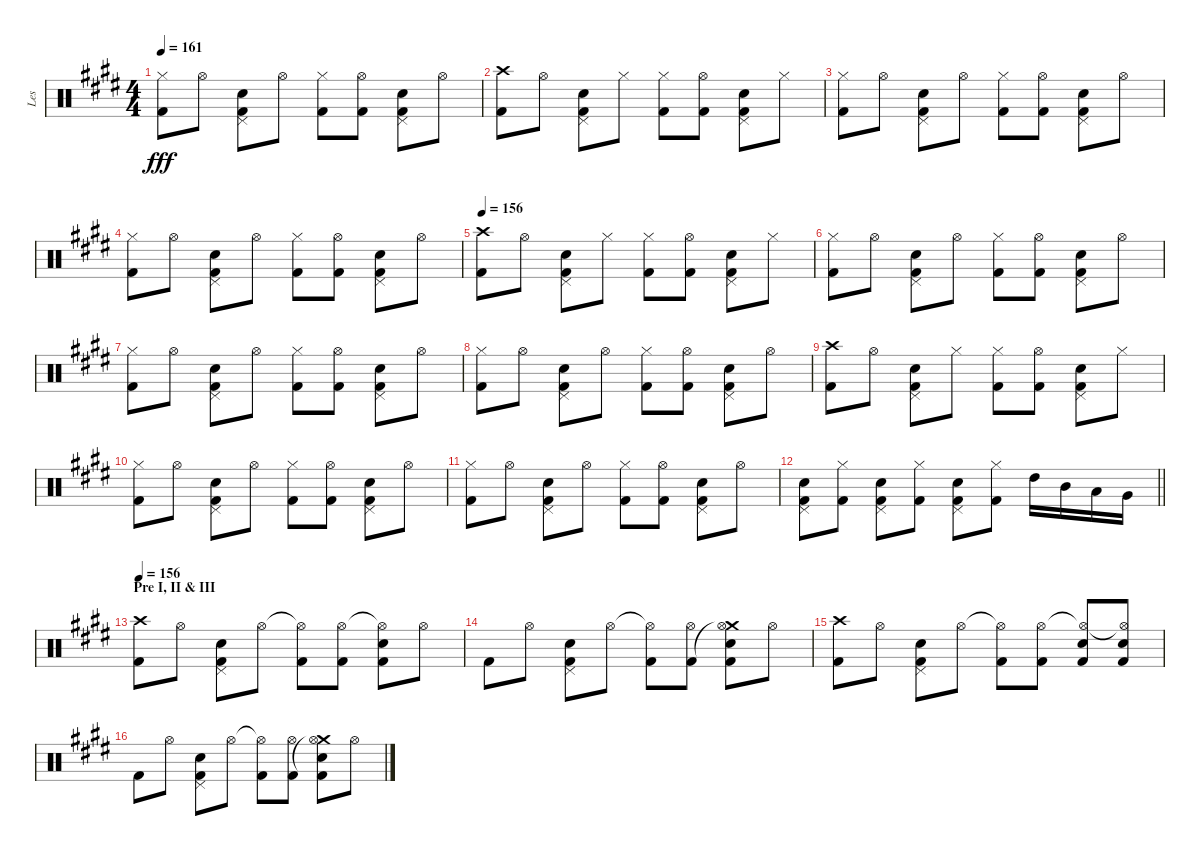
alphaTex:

\track ("Les" "Les") {instrument percussion}
\staff {score}
\articulation defaults
\ts (4 4)
\tempo 161
\clef neutral
\ks e
("Hi-Hat (closed)" "Kick (hit) 2").8{dy fff} "Hi-Hat (open)".8 ("Pedal Hi-Hat (hit)" "Snare (hit) 2" "Kick (hit) 2").8 "Hi-Hat (open)".8 ("Hi-Hat (closed)" "Kick (hit) 2").8 ("Hi-Hat (open)" "Kick (hit) 2").8 ("Pedal Hi-Hat (hit)" "Snare (hit) 2" "Kick (hit) 2").8 "Hi-Hat (open)".8 |
("Crash high (hit)" "Kick (hit) 2").8 "Hi-Hat (open)".8 ("Pedal Hi-Hat (hit)" "Snare (hit) 2" "Kick (hit) 2").8 "Hi-Hat (closed)".8 ("Hi-Hat (closed)" "Kick (hit) 2").8 ("Hi-Hat (open)" "Kick (hit) 2").8 ("Pedal Hi-Hat (hit)" "Snare (hit) 2" "Kick (hit) 2").8 "Hi-Hat (closed)".8 |
("Hi-Hat (closed)" "Kick (hit) 2").8 "Hi-Hat (open)".8 ("Pedal Hi-Hat (hit)" "Snare (hit) 2" "Kick (hit) 2").8 "Hi-Hat (open)".8 ("Hi-Hat (closed)" "Kick (hit) 2").8 ("Hi-Hat (open)" "Kick (hit) 2").8 ("Pedal Hi-Hat (hit)" "Snare (hit) 2" "Kick (hit) 2").8 "Hi-Hat (open)".8 |
("Hi-Hat (closed)" "Kick (hit) 2").8 "Hi-Hat (open)".8 ("Pedal Hi-Hat (hit)" "Snare (hit) 2" "Kick (hit) 2").8 "Hi-Hat (open)".8 ("Hi-Hat (closed)" "Kick (hit) 2").8 ("Hi-Hat (open)" "Kick (hit) 2").8 ("Pedal Hi-Hat (hit)" "Snare (hit) 2" "Kick (hit) 2").8 "Hi-Hat (open)".8 |
\tempo 156
("Crash high (hit)" "Kick (hit) 2").8 "Hi-Hat (open)".8 ("Pedal Hi-Hat (hit)" "Snare (hit) 2" "Kick (hit) 2").8 "Hi-Hat (closed)".8 ("Hi-Hat (closed)" "Kick (hit) 2").8 ("Hi-Hat (open)" "Kick (hit) 2").8 ("Pedal Hi-Hat (hit)" "Snare (hit) 2" "Kick (hit) 2").8 "Hi-Hat (closed)".8 |
("Hi-Hat (closed)" "Kick (hit) 2").8 "Hi-Hat (open)".8 ("Pedal Hi-Hat (hit)" "Snare (hit) 2" "Kick (hit) 2").8 "Hi-Hat (open)".8 ("Hi-Hat (closed)" "Kick (hit) 2").8 ("Hi-Hat (open)" "Kick (hit) 2").8 ("Pedal Hi-Hat (hit)" "Snare (hit) 2" "Kick (hit) 2").8 "Hi-Hat (open)".8 |
("Hi-Hat (closed)" "Kick (hit) 2").8 "Hi-Hat (open)".8 ("Pedal Hi-Hat (hit)" "Snare (hit) 2" "Kick (hit) 2").8 "Hi-Hat (open)".8 ("Hi-Hat (closed)" "Kick (hit) 2").8 ("Hi-Hat (open)" "Kick (hit) 2").8 ("Pedal Hi-Hat (hit)" "Snare (hit) 2" "Kick (hit) 2").8 "Hi-Hat (open)".8 |
("Hi-Hat (closed)" "Kick (hit) 2").8 "Hi-Hat (open)".8 ("Pedal Hi-Hat (hit)" "Snare (hit) 2" "Kick (hit) 2").8 "Hi-Hat (open)".8 ("Hi-Hat (closed)" "Kick (hit) 2").8 ("Hi-Hat (open)" "Kick (hit) 2").8 ("Pedal Hi-Hat (hit)" "Snare (hit) 2" "Kick (hit) 2").8 "Hi-Hat (open)".8 |
("Crash high (hit)" "Kick (hit) 2").8 "Hi-Hat (open)".8 ("Pedal Hi-Hat (hit)" "Snare (hit) 2" "Kick (hit) 2").8 "Hi-Hat (closed)".8 ("Hi-Hat (closed)" "Kick (hit) 2").8 ("Hi-Hat (open)" "Kick (hit) 2").8 ("Pedal Hi-Hat (hit)" "Snare (hit) 2" "Kick (hit) 2").8 "Hi-Hat (closed)".8 |
("Hi-Hat (closed)" "Kick (hit) 2").8 "Hi-Hat (open)".8 ("Pedal Hi-Hat (hit)" "Snare (hit) 2" "Kick (hit) 2").8 "Hi-Hat (open)".8 ("Hi-Hat (closed)" "Kick (hit) 2").8 ("Hi-Hat (open)" "Kick (hit) 2").8 ("Pedal Hi-Hat (hit)" "Snare (hit) 2" "Kick (hit) 2").8 "Hi-Hat (open)".8 |
("Hi-Hat (closed)" "Kick (hit) 2").8 "Hi-Hat (open)".8 ("Pedal Hi-Hat (hit)" "Snare (hit) 2" "Kick (hit) 2").8 "Hi-Hat (open)".8 ("Hi-Hat (closed)" "Kick (hit) 2").8 ("Hi-Hat (open)" "Kick (hit) 2").8 ("Pedal Hi-Hat (hit)" "Snare (hit) 2" "Kick (hit) 2").8 "Hi-Hat (open)".8 |
\barLineRight lightlight
("Pedal Hi-Hat (hit)" "Snare (hit) 2" "Kick (hit) 2").8 ("Hi-Hat (closed)" "Kick (hit) 2").8 ("Pedal Hi-Hat (hit)" "Snare (hit) 2" "Kick (hit) 2").8 ("Hi-Hat (closed)" "Kick (hit) 2").8 ("Pedal Hi-Hat (hit)" "Snare (hit) 2" "Kick (hit) 2").8 ("Hi-Hat (closed)" "Kick (hit) 2").8 "High Tom (hit)".16 "Mid Tom (hit)".16 "Low Tom (hit)".16 "Very Low Tom (hit)".16 |
\section ("" "Pre I, II & III")
\tempo 156
("Crash high (hit)" "Kick (hit) 2").8 "Hi-Hat (open)".8 ("Pedal Hi-Hat (hit)" "Snare (hit) 2" "Kick (hit) 2").8 "Hi-Hat (open)".8 ("Hi-Hat (open)"{t} "Kick (hit) 2").8 ("Hi-Hat (open)" "Kick (hit) 2").8 ("Hi-Hat (open)"{t} "Snare (hit) 2" "Kick (hit) 2").8 "Hi-Hat (open)".8 |
"Kick (hit) 2".8 "Hi-Hat (open)".8 ("Pedal Hi-Hat (hit)" "Snare (hit) 2" "Kick (hit) 2").8 "Hi-Hat (open)".8 ("Hi-Hat (open)"{t} "Kick (hit) 2").8 ("Hi-Hat (open)" "Kick (hit) 2").8 ("Crash medium (hit)" "Hi-Hat (open)"{t} "Snare (hit) 2" "Kick (hit) 2").8 "Hi-Hat (open)".8 |
("Crash high (hit)" "Kick (hit) 2").8 "Hi-Hat (open)".8 ("Pedal Hi-Hat (hit)" "Snare (hit) 2" "Kick (hit) 2").8 "Hi-Hat (open)".8 ("Hi-Hat (open)"{t} "Kick (hit) 2").8 ("Hi-Hat (open)" "Kick (hit) 2").8 ("Hi-Hat (open)"{t} "Snare (hit) 2" "Kick (hit) 2").8 ("Hi-Hat (open)"{t} "Snare (hit) 2" "Kick (hit) 2").8 |
"Kick (hit) 2".8 "Hi-Hat (open)".8 ("Pedal Hi-Hat (hit)" "Snare (hit) 2" "Kick (hit) 2").8 "Hi-Hat (open)".8 ("Hi-Hat (open)"{t} "Kick (hit) 2").8 ("Hi-Hat (open)" "Kick (hit) 2").8 ("Crash medium (hit)" "Hi-Hat (open)"{t} "Snare (hit) 2" "Kick (hit) 2").8 "Hi-Hat (open)".8
